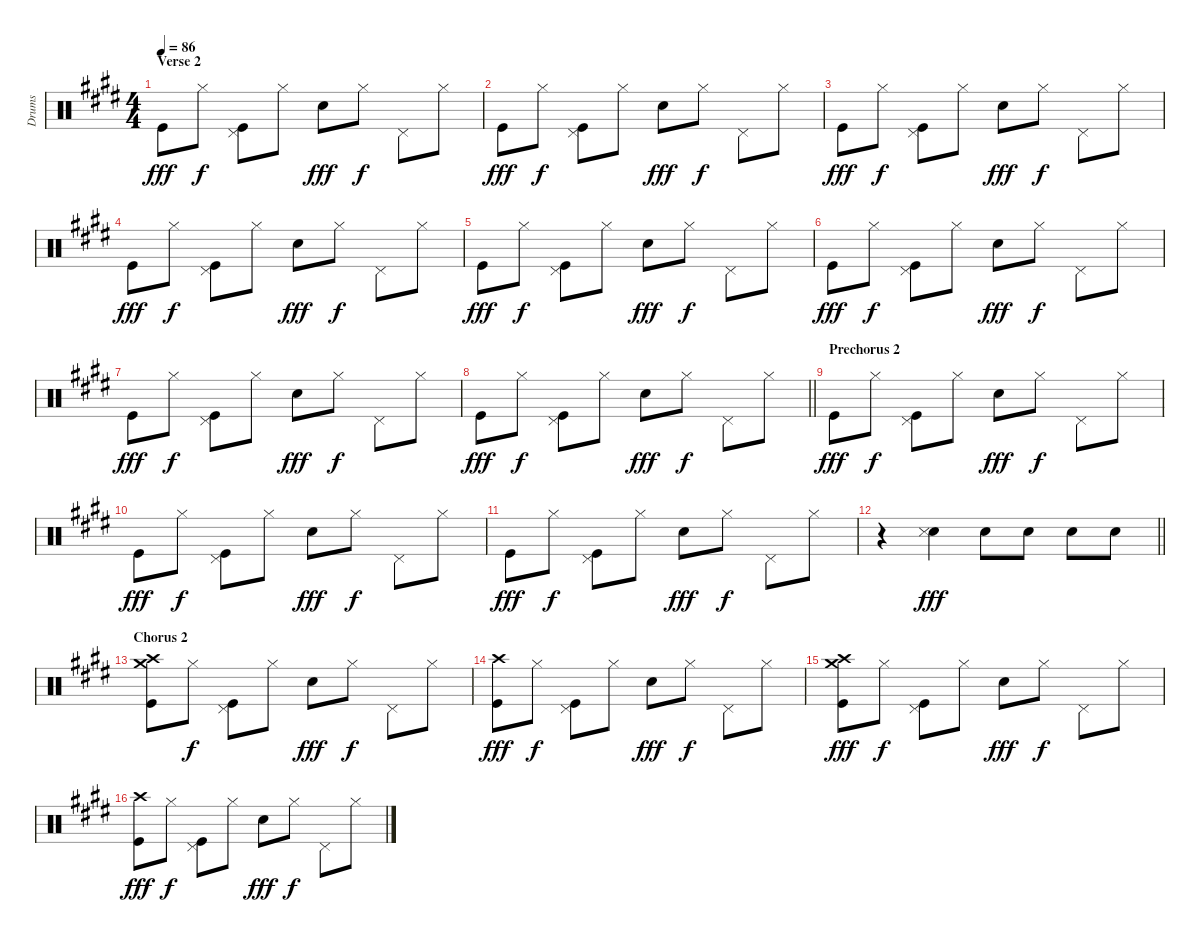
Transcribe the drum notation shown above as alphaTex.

\track ("Drums" "Drums") {instrument percussion}
\staff {score}
\articulation defaults
\ts (4 4)
\section ("" "Verse 2")
\tempo 86
\clef neutral
\ks e "Kick (hit)".8{dy fff} "Hi-Hat (closed)".8{dy f}
("Kick (hit)" "Pedal Hi-Hat (hit)").8 "Hi-Hat (closed)".8 "Snare (hit) 2".8{dy fff} "Hi-Hat (closed)".8{dy f} "Pedal Hi-Hat (hit)".8 "Hi-Hat (closed)".8 |
"Kick (hit)".8{dy fff} "Hi-Hat (closed)".8{dy f} ("Kick (hit)" "Pedal Hi-Hat (hit)").8 "Hi-Hat (closed)".8 "Snare (hit) 2".8{dy fff} "Hi-Hat (closed)".8{dy f} "Pedal Hi-Hat (hit)".8 "Hi-Hat (closed)".8 |
"Kick (hit)".8{dy fff} "Hi-Hat (closed)".8{dy f} ("Kick (hit)" "Pedal Hi-Hat (hit)").8 "Hi-Hat (closed)".8 "Snare (hit) 2".8{dy fff} "Hi-Hat (closed)".8{dy f} "Pedal Hi-Hat (hit)".8 "Hi-Hat (closed)".8 |
"Kick (hit)".8{dy fff} "Hi-Hat (closed)".8{dy f} ("Kick (hit)" "Pedal Hi-Hat (hit)").8 "Hi-Hat (closed)".8 "Snare (hit) 2".8{dy fff} "Hi-Hat (closed)".8{dy f} "Pedal Hi-Hat (hit)".8 "Hi-Hat (closed)".8 |
"Kick (hit)".8{dy fff} "Hi-Hat (closed)".8{dy f} ("Kick (hit)" "Pedal Hi-Hat (hit)").8 "Hi-Hat (closed)".8 "Snare (hit) 2".8{dy fff} "Hi-Hat (closed)".8{dy f} "Pedal Hi-Hat (hit)".8 "Hi-Hat (closed)".8 |
"Kick (hit)".8{dy fff} "Hi-Hat (closed)".8{dy f} ("Kick (hit)" "Pedal Hi-Hat (hit)").8 "Hi-Hat (closed)".8 "Snare (hit) 2".8{dy fff} "Hi-Hat (closed)".8{dy f} "Pedal Hi-Hat (hit)".8 "Hi-Hat (closed)".8 |
"Kick (hit)".8{dy fff} "Hi-Hat (closed)".8{dy f} ("Kick (hit)" "Pedal Hi-Hat (hit)").8 "Hi-Hat (closed)".8 "Snare (hit) 2".8{dy fff} "Hi-Hat (closed)".8{dy f} "Pedal Hi-Hat (hit)".8 "Hi-Hat (closed)".8 |
\barLineRight lightlight "Kick (hit)".8{dy fff} "Hi-Hat (closed)".8{dy f}
("Kick (hit)" "Pedal Hi-Hat (hit)").8 "Hi-Hat (closed)".8 "Snare (hit) 2".8{dy fff} "Hi-Hat (closed)".8{dy f} "Pedal Hi-Hat (hit)".8 "Hi-Hat (closed)".8 |
\section ("" "Prechorus 2")
"Kick (hit)".8{dy fff} "Hi-Hat (closed)".8{dy f} ("Kick (hit)" "Pedal Hi-Hat (hit)").8 "Hi-Hat (closed)".8 "Snare (hit) 2".8{dy fff} "Hi-Hat (closed)".8{dy f} "Pedal Hi-Hat (hit)".8 "Hi-Hat (closed)".8 |
"Kick (hit)".8{dy fff} "Hi-Hat (closed)".8{dy f} ("Kick (hit)" "Pedal Hi-Hat (hit)").8 "Hi-Hat (closed)".8 "Snare (hit) 2".8{dy fff} "Hi-Hat (closed)".8{dy f} "Pedal Hi-Hat (hit)".8 "Hi-Hat (closed)".8 |
"Kick (hit)".8{dy fff} "Hi-Hat (closed)".8{dy f} ("Kick (hit)" "Pedal Hi-Hat (hit)").8 "Hi-Hat (closed)".8 "Snare (hit) 2".8{dy fff} "Hi-Hat (closed)".8{dy f} "Pedal Hi-Hat (hit)".8 "Hi-Hat (closed)".8 |
\barLineRight lightlight
r.4 ("Snare (hit) 2" "Snare (side stick) 3").4{dy fff} "Snare (hit) 2".8 "Snare (hit) 2".8 "Snare (hit) 2".8 "Snare (hit) 2".8 |
\section ("" "Chorus 2")
("Kick (hit)" "Crash high (hit)" "Crash medium (hit)").8 "Hi-Hat (closed)".8{dy f} ("Kick (hit)" "Pedal Hi-Hat (hit)").8 "Hi-Hat (closed)".8 "Snare (hit) 2".8{dy fff} "Hi-Hat (closed)".8{dy f} "Pedal Hi-Hat (hit)".8 "Hi-Hat (closed)".8 |
("Kick (hit)" "Crash high (hit)").8{dy fff} "Hi-Hat (closed)".8{dy f} ("Kick (hit)" "Pedal Hi-Hat (hit)").8 "Hi-Hat (closed)".8 "Snare (hit) 2".8{dy fff} "Hi-Hat (closed)".8{dy f} "Pedal Hi-Hat (hit)".8 "Hi-Hat (closed)".8 |
("Kick (hit)" "Crash high (hit)" "Crash medium (hit)").8{dy fff} "Hi-Hat (closed)".8{dy f} ("Kick (hit)" "Pedal Hi-Hat (hit)").8 "Hi-Hat (closed)".8 "Snare (hit) 2".8{dy fff} "Hi-Hat (closed)".8{dy f} "Pedal Hi-Hat (hit)".8 "Hi-Hat (closed)".8 |
("Kick (hit)" "Crash high (hit)").8{dy fff} "Hi-Hat (closed)".8{dy f} ("Kick (hit)" "Pedal Hi-Hat (hit)").8 "Hi-Hat (closed)".8 "Snare (hit) 2".8{dy fff} "Hi-Hat (closed)".8{dy f} "Pedal Hi-Hat (hit)".8 "Hi-Hat (closed)".8
